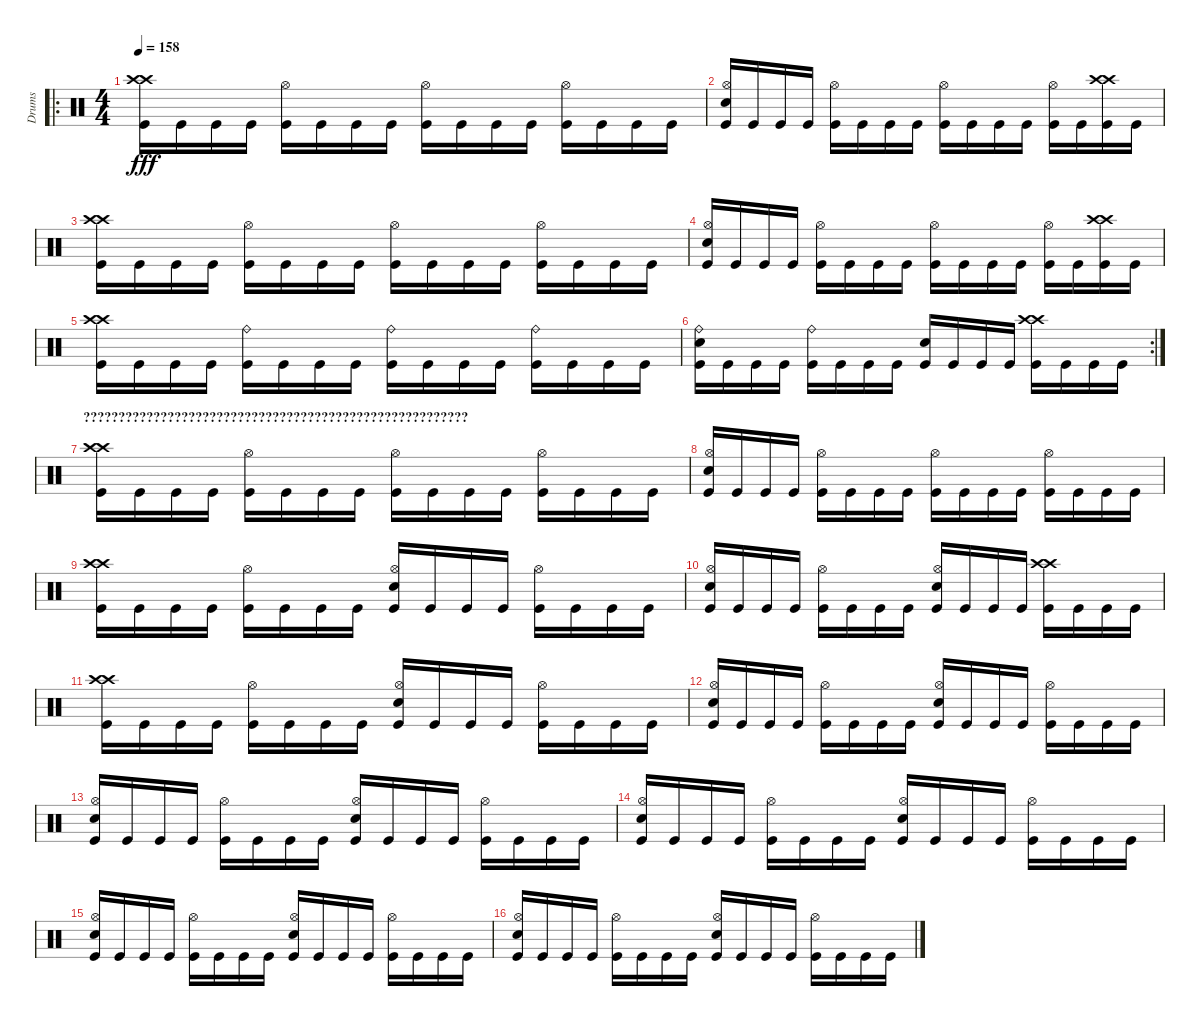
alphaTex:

\track ("Drums" "Drums") {instrument percussion}
\staff {score}
\articulation defaults
\ro
\ts (4 4)
\tempo 158
\clef neutral
\ks c
("Crash high (hit)" "Crash high (hit)" "Kick (hit)").16{dy fff} "Kick (hit)".16 "Kick (hit)".16 "Kick (hit)".16 ("Hi-Hat (open)" "Kick (hit)").16 "Kick (hit)".16 "Kick (hit)".16 "Kick (hit)".16 ("Hi-Hat (open)" "Kick (hit)").16 "Kick (hit)".16 "Kick (hit)".16 "Kick (hit)".16 ("Hi-Hat (open)" "Kick (hit)").16 "Kick (hit)".16 "Kick (hit)".16 "Kick (hit)".16 |
("Electric Snare (hit)" "Hi-Hat (open)" "Kick (hit)").16 "Kick (hit)".16 "Kick (hit)".16 "Kick (hit)".16 ("Hi-Hat (open)" "Kick (hit)").16 "Kick (hit)".16 "Kick (hit)".16 "Kick (hit)".16 ("Hi-Hat (open)" "Kick (hit)").16 "Kick (hit)".16 "Kick (hit)".16 "Kick (hit)".16 ("Hi-Hat (open)" "Kick (hit)").16 "Kick (hit)".16 ("Crash high (hit)" "Crash high (hit)" "Kick (hit)").16 "Kick (hit)".16 |
("Crash high (hit)" "Crash high (hit)" "Kick (hit)").16 "Kick (hit)".16 "Kick (hit)".16 "Kick (hit)".16 ("Hi-Hat (open)" "Kick (hit)").16 "Kick (hit)".16 "Kick (hit)".16 "Kick (hit)".16 ("Hi-Hat (open)" "Kick (hit)").16 "Kick (hit)".16 "Kick (hit)".16 "Kick (hit)".16 ("Hi-Hat (open)" "Kick (hit)").16 "Kick (hit)".16 "Kick (hit)".16 "Kick (hit)".16 |
("Electric Snare (hit)" "Hi-Hat (open)" "Kick (hit)").16 "Kick (hit)".16 "Kick (hit)".16 "Kick (hit)".16 ("Hi-Hat (open)" "Kick (hit)").16 "Kick (hit)".16 "Kick (hit)".16 "Kick (hit)".16 ("Hi-Hat (open)" "Kick (hit)").16 "Kick (hit)".16 "Kick (hit)".16 "Kick (hit)".16 ("Hi-Hat (open)" "Kick (hit)").16 "Kick (hit)".16 ("Crash high (hit)" "Crash high (hit)" "Kick (hit)").16 "Kick (hit)".16 |
("Crash high (hit)" "Crash high (hit)" "Kick (hit)").16 "Kick (hit)".16 "Kick (hit)".16 "Kick (hit)".16 ("Ride (bell)" "Kick (hit)").16 "Kick (hit)".16 "Kick (hit)".16 "Kick (hit)".16 ("Ride (bell)" "Kick (hit)").16 "Kick (hit)".16 "Kick (hit)".16 "Kick (hit)".16 ("Ride (bell)" "Kick (hit)").16 "Kick (hit)".16 "Kick (hit)".16 "Kick (hit)".16 |
\rc 2
("Electric Snare (hit)" "Ride (bell)" "Kick (hit)").16 "Kick (hit)".16 "Kick (hit)".16 "Kick (hit)".16 ("Ride (bell)" "Kick (hit)").16 "Kick (hit)".16 "Kick (hit)".16 "Kick (hit)".16 ("Electric Snare (hit)" "Kick (hit)").16 "Kick (hit)".16 "Kick (hit)".16 "Kick (hit)".16 ("Crash high (hit)" "Crash high (hit)" "Kick (hit)").16 "Kick (hit)".16 "Kick (hit)".16 "Kick (hit)".16 |
\section ("" "???????????????????????????????????????????????????????")
("Crash high (hit)" "Crash high (hit)" "Kick (hit)").16 "Kick (hit)".16 "Kick (hit)".16 "Kick (hit)".16 ("Hi-Hat (open)" "Kick (hit)").16 "Kick (hit)".16 "Kick (hit)".16 "Kick (hit)".16 ("Hi-Hat (open)" "Kick (hit)").16 "Kick (hit)".16 "Kick (hit)".16 "Kick (hit)".16 ("Hi-Hat (open)" "Kick (hit)").16 "Kick (hit)".16 "Kick (hit)".16 "Kick (hit)".16 |
("Electric Snare (hit)" "Hi-Hat (open)" "Kick (hit)").16 "Kick (hit)".16 "Kick (hit)".16 "Kick (hit)".16 ("Hi-Hat (open)" "Kick (hit)").16 "Kick (hit)".16 "Kick (hit)".16 "Kick (hit)".16 ("Hi-Hat (open)" "Kick (hit)").16 "Kick (hit)".16 "Kick (hit)".16 "Kick (hit)".16 ("Hi-Hat (open)" "Kick (hit)").16 "Kick (hit)".16 "Kick (hit)".16 "Kick (hit)".16 |
("Crash high (hit)" "Crash high (hit)" "Kick (hit)").16 "Kick (hit)".16 "Kick (hit)".16 "Kick (hit)".16 ("Hi-Hat (open)" "Kick (hit)").16 "Kick (hit)".16 "Kick (hit)".16 "Kick (hit)".16 ("Electric Snare (hit)" "Hi-Hat (open)" "Kick (hit)").16 "Kick (hit)".16 "Kick (hit)".16 "Kick (hit)".16 ("Hi-Hat (open)" "Kick (hit)").16 "Kick (hit)".16 "Kick (hit)".16 "Kick (hit)".16 |
("Electric Snare (hit)" "Hi-Hat (open)" "Kick (hit)").16 "Kick (hit)".16 "Kick (hit)".16 "Kick (hit)".16 ("Hi-Hat (open)" "Kick (hit)").16 "Kick (hit)".16 "Kick (hit)".16 "Kick (hit)".16 ("Electric Snare (hit)" "Hi-Hat (open)" "Kick (hit)").16 "Kick (hit)".16 "Kick (hit)".16 "Kick (hit)".16 ("Crash high (hit)" "Crash high (hit)" "Kick (hit)").16 "Kick (hit)".16 "Kick (hit)".16 "Kick (hit)".16 |
("Crash high (hit)" "Crash high (hit)" "Kick (hit)").16 "Kick (hit)".16 "Kick (hit)".16 "Kick (hit)".16 ("Hi-Hat (open)" "Kick (hit)").16 "Kick (hit)".16 "Kick (hit)".16 "Kick (hit)".16 ("Electric Snare (hit)" "Hi-Hat (open)" "Kick (hit)").16 "Kick (hit)".16 "Kick (hit)".16 "Kick (hit)".16 ("Hi-Hat (open)" "Kick (hit)").16 "Kick (hit)".16 "Kick (hit)".16 "Kick (hit)".16 |
("Electric Snare (hit)" "Hi-Hat (open)" "Kick (hit)").16 "Kick (hit)".16 "Kick (hit)".16 "Kick (hit)".16 ("Hi-Hat (open)" "Kick (hit)").16 "Kick (hit)".16 "Kick (hit)".16 "Kick (hit)".16 ("Electric Snare (hit)" "Hi-Hat (open)" "Kick (hit)").16 "Kick (hit)".16 "Kick (hit)".16 "Kick (hit)".16 ("Hi-Hat (open)" "Kick (hit)").16 "Kick (hit)".16 "Kick (hit)".16 "Kick (hit)".16 |
("Electric Snare (hit)" "Hi-Hat (open)" "Kick (hit)").16 "Kick (hit)".16 "Kick (hit)".16 "Kick (hit)".16 ("Hi-Hat (open)" "Kick (hit)").16 "Kick (hit)".16 "Kick (hit)".16 "Kick (hit)".16 ("Electric Snare (hit)" "Hi-Hat (open)" "Kick (hit)").16 "Kick (hit)".16 "Kick (hit)".16 "Kick (hit)".16 ("Hi-Hat (open)" "Kick (hit)").16 "Kick (hit)".16 "Kick (hit)".16 "Kick (hit)".16 |
("Electric Snare (hit)" "Hi-Hat (open)" "Kick (hit)").16 "Kick (hit)".16 "Kick (hit)".16 "Kick (hit)".16 ("Hi-Hat (open)" "Kick (hit)").16 "Kick (hit)".16 "Kick (hit)".16 "Kick (hit)".16 ("Electric Snare (hit)" "Hi-Hat (open)" "Kick (hit)").16 "Kick (hit)".16 "Kick (hit)".16 "Kick (hit)".16 ("Hi-Hat (open)" "Kick (hit)").16 "Kick (hit)".16 "Kick (hit)".16 "Kick (hit)".16 |
("Electric Snare (hit)" "Hi-Hat (open)" "Kick (hit)").16 "Kick (hit)".16 "Kick (hit)".16 "Kick (hit)".16 ("Hi-Hat (open)" "Kick (hit)").16 "Kick (hit)".16 "Kick (hit)".16 "Kick (hit)".16 ("Electric Snare (hit)" "Hi-Hat (open)" "Kick (hit)").16 "Kick (hit)".16 "Kick (hit)".16 "Kick (hit)".16 ("Hi-Hat (open)" "Kick (hit)").16 "Kick (hit)".16 "Kick (hit)".16 "Kick (hit)".16 |
("Electric Snare (hit)" "Hi-Hat (open)" "Kick (hit)").16 "Kick (hit)".16 "Kick (hit)".16 "Kick (hit)".16 ("Hi-Hat (open)" "Kick (hit)").16 "Kick (hit)".16 "Kick (hit)".16 "Kick (hit)".16 ("Electric Snare (hit)" "Hi-Hat (open)" "Kick (hit)").16 "Kick (hit)".16 "Kick (hit)".16 "Kick (hit)".16 ("Hi-Hat (open)" "Kick (hit)").16 "Kick (hit)".16 "Kick (hit)".16 "Kick (hit)".16
